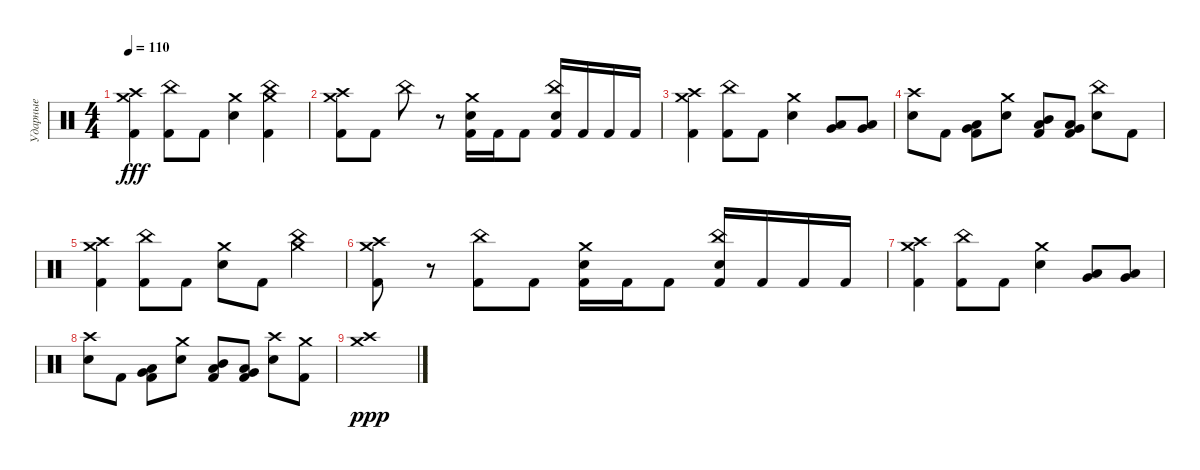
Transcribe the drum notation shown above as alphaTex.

\track ("Ударные" "Ударные") {instrument percussion}
\staff {score}
\articulation defaults
\ts (4 4)
\tempo 110
\clef neutral
\ks c
("Crash high (hit)" "Crash medium (hit)" "Kick (hit) 2").4{dy fff} ("China (hit)" "Kick (hit) 2").8 "Kick (hit) 2".8 ("Crash medium (hit)" "Electric Snare (hit)").4 ("Crash medium (hit)" "China (hit)" "Kick (hit) 2").4 |
("Crash high (hit)" "Crash medium (hit)" "Kick (hit) 2").8 "Kick (hit) 2".8 "China (hit)".8 r.8 ("Crash medium (hit)" "Electric Snare (hit)" "Kick (hit) 2").16 "Kick (hit) 2".16 "Kick (hit) 2".8 ("China (hit)" "Electric Snare (hit)" "Kick (hit) 2").16 "Kick (hit) 2".16 "Kick (hit) 2".16 "Kick (hit) 2".16 |
("Crash high (hit)" "Crash medium (hit)" "Kick (hit) 2").4 ("China (hit)" "Kick (hit) 2").8 "Kick (hit) 2".8 ("Crash medium (hit)" "Electric Snare (hit)").4 ("Very Low Tom (hit)" "Low Floor Tom (hit)").8 ("Very Low Tom (hit)" "Low Floor Tom (hit)").8 |
("Crash high (hit)" "Electric Snare (hit)").8 "Kick (hit) 2".8 ("Very Low Tom (hit)" "Low Floor Tom (hit)" "Kick (hit) 2").8 ("Crash medium (hit)" "Electric Snare (hit)").8 ("Mid Tom (hit)" "Low Floor Tom (hit)" "Kick (hit) 2").8 ("Very Low Tom (hit)" "Low Floor Tom (hit)" "Kick (hit) 2").8 ("China (hit)" "Electric Snare (hit)").8 "Kick (hit) 2".8 |
("Crash high (hit)" "Crash medium (hit)" "Kick (hit) 2").4 ("China (hit)" "Kick (hit) 2").8 "Kick (hit) 2".8 ("Crash medium (hit)" "Electric Snare (hit)").8 "Kick (hit) 2".8 ("Crash medium (hit)" "China (hit)").4 |
("Crash high (hit)" "Crash medium (hit)" "Kick (hit) 2").8 r.8 ("China (hit)" "Kick (hit) 2").8 "Kick (hit) 2".8 ("Crash medium (hit)" "Electric Snare (hit)" "Kick (hit) 2").16 "Kick (hit) 2".16 "Kick (hit) 2".8 ("China (hit)" "Electric Snare (hit)" "Kick (hit) 2").16 "Kick (hit) 2".16 "Kick (hit) 2".16 "Kick (hit) 2".16 |
("Crash high (hit)" "Crash medium (hit)" "Kick (hit) 2").4 ("China (hit)" "Kick (hit) 2").8 "Kick (hit) 2".8 ("Crash medium (hit)" "Electric Snare (hit)").4 ("Very Low Tom (hit)" "Low Floor Tom (hit)").8 ("Very Low Tom (hit)" "Low Floor Tom (hit)").8 |
("Crash high (hit)" "Electric Snare (hit)").8 "Kick (hit) 2".8 ("Very Low Tom (hit)" "Low Floor Tom (hit)" "Kick (hit) 2").8 ("Crash medium (hit)" "Electric Snare (hit)").8 ("Mid Tom (hit)" "Low Floor Tom (hit)" "Kick (hit) 2").8 ("Very Low Tom (hit)" "Low Floor Tom (hit)" "Kick (hit) 2").8 ("Crash high (hit)" "Electric Snare (hit)").8 ("Crash medium (hit)" "Kick (hit) 2").8 |
("Crash high (hit)" "Crash medium (hit)").1{dy ppp}
